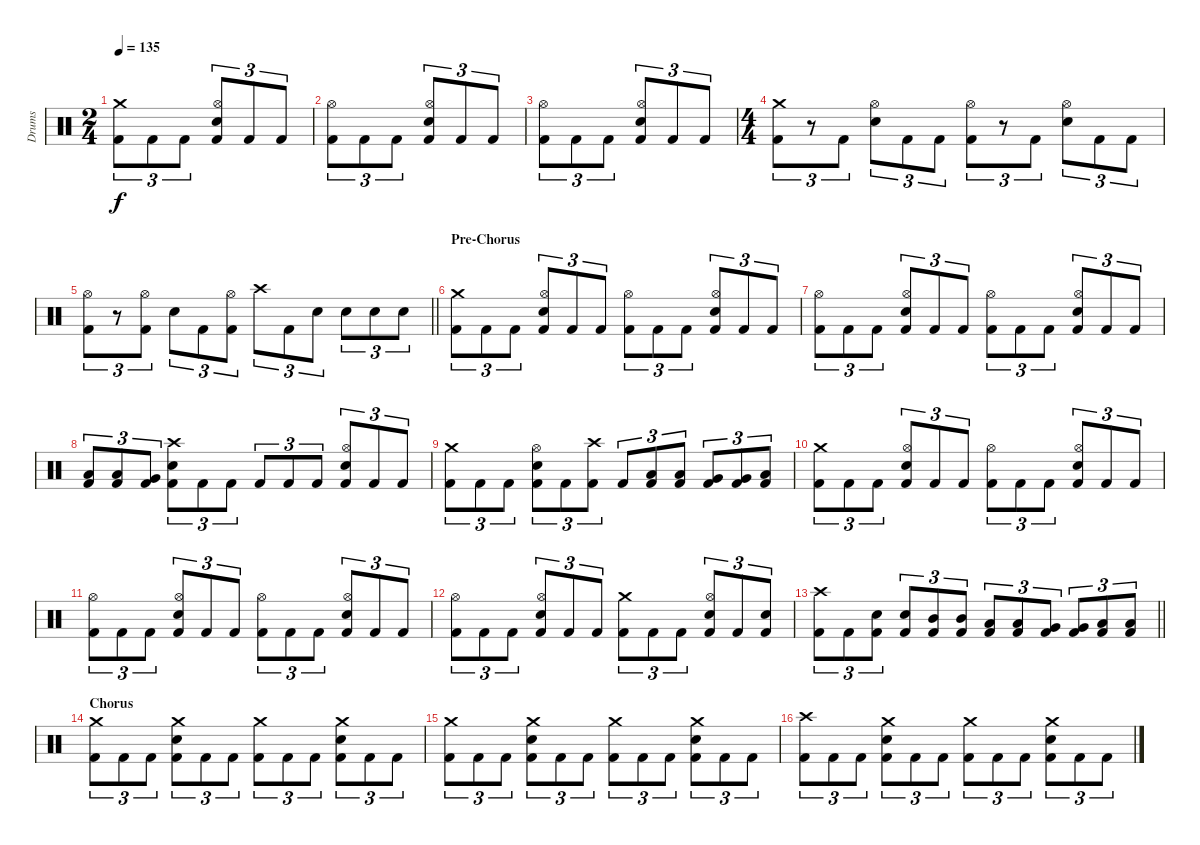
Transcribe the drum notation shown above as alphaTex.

\track ("Drums" "Drums") {instrument percussion}
\staff {score}
\articulation defaults
\ts (2 4)
\tempo 135
\clef neutral
\ks c
("Crash medium (hit)" "Kick (hit) 2").8{tu (3 2) dy f} "Kick (hit) 2".8{tu (3 2)} "Kick (hit) 2".8{tu (3 2)} ("Hi-Hat (open)" "Electric Snare (hit)" "Kick (hit) 2").8{tu (3 2)} "Kick (hit) 2".8{tu (3 2)} "Kick (hit) 2".8{tu (3 2)} |
("Hi-Hat (open)" "Kick (hit) 2").8{tu (3 2)} "Kick (hit) 2".8{tu (3 2)} "Kick (hit) 2".8{tu (3 2)} ("Hi-Hat (open)" "Electric Snare (hit)" "Kick (hit) 2").8{tu (3 2)} "Kick (hit) 2".8{tu (3 2)} "Kick (hit) 2".8{tu (3 2)} |
("Hi-Hat (open)" "Kick (hit) 2").8{tu (3 2)} "Kick (hit) 2".8{tu (3 2)} "Kick (hit) 2".8{tu (3 2)} ("Hi-Hat (open)" "Electric Snare (hit)" "Kick (hit) 2").8{tu (3 2)} "Kick (hit) 2".8{tu (3 2)} "Kick (hit) 2".8{tu (3 2)} |
\ts (4 4)
("Crash medium (hit)" "Kick (hit) 2").8{tu (3 2)} r.8{tu (3 2)} "Kick (hit) 2".8{tu (3 2)} ("Hi-Hat (open)" "Electric Snare (hit)").8{tu (3 2)} "Kick (hit) 2".8{tu (3 2)} "Kick (hit) 2".8{tu (3 2)} ("Hi-Hat (open)" "Kick (hit) 2").8{tu (3 2)} r.8{tu (3 2)} "Kick (hit) 2".8{tu (3 2)} ("Hi-Hat (open)" "Electric Snare (hit)").8{tu (3 2)} "Kick (hit) 2".8{tu (3 2)} "Kick (hit) 2".8{tu (3 2)} |
\barLineRight lightlight
("Hi-Hat (open)" "Kick (hit) 2").8{tu (3 2)} r.8{tu (3 2)} ("Hi-Hat (open)" "Kick (hit) 2").8{tu (3 2)} "Electric Snare (hit)".8{tu (3 2)} "Kick (hit) 2".8{tu (3 2)} ("Hi-Hat (open)" "Kick (hit) 2").8{tu (3 2)} "Crash high (hit)".8{tu (3 2)} "Kick (hit) 2".8{tu (3 2)} "Electric Snare (hit)".8{tu (3 2)} "Electric Snare (hit)".8{tu (3 2)} "Electric Snare (hit)".8{tu (3 2)} "Electric Snare (hit)".8{tu (3 2)} |
\section ("" "Pre-Chorus")
("Crash medium (hit)" "Kick (hit) 2").8{tu (3 2)} "Kick (hit) 2".8{tu (3 2)} "Kick (hit) 2".8{tu (3 2)} ("Hi-Hat (open)" "Electric Snare (hit)" "Kick (hit) 2").8{tu (3 2)} "Kick (hit) 2".8{tu (3 2)} "Kick (hit) 2".8{tu (3 2)} ("Hi-Hat (open)" "Kick (hit) 2").8{tu (3 2)} "Kick (hit) 2".8{tu (3 2)} "Kick (hit) 2".8{tu (3 2)} ("Hi-Hat (open)" "Electric Snare (hit)" "Kick (hit) 2").8{tu (3 2)} "Kick (hit) 2".8{tu (3 2)} "Kick (hit) 2".8{tu (3 2)} |
("Hi-Hat (open)" "Kick (hit) 2").8{tu (3 2)} "Kick (hit) 2".8{tu (3 2)} "Kick (hit) 2".8{tu (3 2)} ("Hi-Hat (open)" "Electric Snare (hit)" "Kick (hit) 2").8{tu (3 2)} "Kick (hit) 2".8{tu (3 2)} "Kick (hit) 2".8{tu (3 2)} ("Hi-Hat (open)" "Kick (hit) 2").8{tu (3 2)} "Kick (hit) 2".8{tu (3 2)} "Kick (hit) 2".8{tu (3 2)} ("Hi-Hat (open)" "Electric Snare (hit)" "Kick (hit) 2").8{tu (3 2)} "Kick (hit) 2".8{tu (3 2)} "Kick (hit) 2".8{tu (3 2)} |
("Low Tom (hit)" "Kick (hit) 2").8{tu (3 2)} ("Low Tom (hit)" "Kick (hit) 2").8{tu (3 2)} ("Very Low Tom (hit)" "Kick (hit) 2").8{tu (3 2)} ("Crash high (hit)" "Electric Snare (hit)" "Kick (hit) 2").8{tu (3 2)} "Kick (hit) 2".8{tu (3 2)} "Kick (hit) 2".8{tu (3 2)} "Kick (hit) 2".8{tu (3 2)} "Kick (hit) 2".8{tu (3 2)} "Kick (hit) 2".8{tu (3 2)} ("Hi-Hat (open)" "Electric Snare (hit)" "Kick (hit) 2").8{tu (3 2)} "Kick (hit) 2".8{tu (3 2)} "Kick (hit) 2".8{tu (3 2)} |
("Crash medium (hit)" "Kick (hit) 2").8{tu (3 2)} "Kick (hit) 2".8{tu (3 2)} "Kick (hit) 2".8{tu (3 2)} ("Hi-Hat (open)" "Electric Snare (hit)" "Kick (hit) 2").8{tu (3 2)} "Kick (hit) 2".8{tu (3 2)} ("Crash high (hit)" "Kick (hit) 2").8{tu (3 2)} "Kick (hit) 2".8{tu (3 2)} ("Low Tom (hit)" "Kick (hit) 2").8{tu (3 2)} ("Low Tom (hit)" "Kick (hit) 2").8{tu (3 2)} ("Very Low Tom (hit)" "Kick (hit) 2").8{tu (3 2)} ("Very Low Tom (hit)" "Kick (hit) 2").8{tu (3 2)} ("Low Floor Tom (hit)" "Kick (hit) 2").8{tu (3 2)} |
("Crash medium (hit)" "Kick (hit) 2").8{tu (3 2)} "Kick (hit) 2".8{tu (3 2)} "Kick (hit) 2".8{tu (3 2)} ("Hi-Hat (open)" "Electric Snare (hit)" "Kick (hit) 2").8{tu (3 2)} "Kick (hit) 2".8{tu (3 2)} "Kick (hit) 2".8{tu (3 2)} ("Hi-Hat (open)" "Kick (hit) 2").8{tu (3 2)} "Kick (hit) 2".8{tu (3 2)} "Kick (hit) 2".8{tu (3 2)} ("Hi-Hat (open)" "Electric Snare (hit)" "Kick (hit) 2").8{tu (3 2)} "Kick (hit) 2".8{tu (3 2)} "Kick (hit) 2".8{tu (3 2)} |
("Hi-Hat (open)" "Kick (hit) 2").8{tu (3 2)} "Kick (hit) 2".8{tu (3 2)} "Kick (hit) 2".8{tu (3 2)} ("Hi-Hat (open)" "Electric Snare (hit)" "Kick (hit) 2").8{tu (3 2)} "Kick (hit) 2".8{tu (3 2)} "Kick (hit) 2".8{tu (3 2)} ("Hi-Hat (open)" "Kick (hit) 2").8{tu (3 2)} "Kick (hit) 2".8{tu (3 2)} "Kick (hit) 2".8{tu (3 2)} ("Hi-Hat (open)" "Electric Snare (hit)" "Kick (hit) 2").8{tu (3 2)} "Kick (hit) 2".8{tu (3 2)} "Kick (hit) 2".8{tu (3 2)} |
("Hi-Hat (open)" "Kick (hit) 2").8{tu (3 2)} "Kick (hit) 2".8{tu (3 2)} "Kick (hit) 2".8{tu (3 2)} ("Hi-Hat (open)" "Electric Snare (hit)" "Kick (hit) 2").8{tu (3 2)} "Kick (hit) 2".8{tu (3 2)} "Kick (hit) 2".8{tu (3 2)} ("Crash medium (hit)" "Kick (hit) 2").8{tu (3 2)} "Kick (hit) 2".8{tu (3 2)} "Kick (hit) 2".8{tu (3 2)} ("Hi-Hat (open)" "Electric Snare (hit)" "Kick (hit) 2").8{tu (3 2)} "Kick (hit) 2".8{tu (3 2)} ("Electric Snare (hit)" "Kick (hit) 2").8{tu (3 2)} |
\barLineRight lightlight
("Crash high (hit)" "Kick (hit) 2").8{tu (3 2)} "Kick (hit) 2".8{tu (3 2)} ("Electric Snare (hit)" "Kick (hit) 2").8{tu (3 2)} ("Electric Snare (hit)" "Kick (hit) 2").8{tu (3 2)} ("Mid Tom (hit)" "Kick (hit) 2").8{tu (3 2)} ("Mid Tom (hit)" "Kick (hit) 2").8{tu (3 2)} ("Low Tom (hit)" "Kick (hit) 2").8{tu (3 2)} ("Low Tom (hit)" "Kick (hit) 2").8{tu (3 2)} ("Very Low Tom (hit)" "Kick (hit) 2").8{tu (3 2)} ("Very Low Tom (hit)" "Kick (hit) 2").8{tu (3 2)} ("Low Floor Tom (hit)" "Kick (hit) 2").8{tu (3 2)} ("Low Floor Tom (hit)" "Kick (hit) 2").8{tu (3 2)} |
\section ("" "Chorus")
("Crash medium (hit)" "Kick (hit) 2").8{tu (3 2)} "Kick (hit) 2".8{tu (3 2)} "Kick (hit) 2".8{tu (3 2)} ("Crash medium (hit)" "Electric Snare (hit)" "Kick (hit) 2").8{tu (3 2)} "Kick (hit) 2".8{tu (3 2)} "Kick (hit) 2".8{tu (3 2)} ("Crash medium (hit)" "Kick (hit) 2").8{tu (3 2)} "Kick (hit) 2".8{tu (3 2)} "Kick (hit) 2".8{tu (3 2)} ("Crash medium (hit)" "Electric Snare (hit)" "Kick (hit) 2").8{tu (3 2)} "Kick (hit) 2".8{tu (3 2)} "Kick (hit) 2".8{tu (3 2)} |
("Crash medium (hit)" "Kick (hit) 2").8{tu (3 2)} "Kick (hit) 2".8{tu (3 2)} "Kick (hit) 2".8{tu (3 2)} ("Crash medium (hit)" "Electric Snare (hit)" "Kick (hit) 2").8{tu (3 2)} "Kick (hit) 2".8{tu (3 2)} "Kick (hit) 2".8{tu (3 2)} ("Crash medium (hit)" "Kick (hit) 2").8{tu (3 2)} "Kick (hit) 2".8{tu (3 2)} "Kick (hit) 2".8{tu (3 2)} ("Crash medium (hit)" "Electric Snare (hit)" "Kick (hit) 2").8{tu (3 2)} "Kick (hit) 2".8{tu (3 2)} "Kick (hit) 2".8{tu (3 2)} |
("Crash high (hit)" "Kick (hit) 2").8{tu (3 2)} "Kick (hit) 2".8{tu (3 2)} "Kick (hit) 2".8{tu (3 2)} ("Crash medium (hit)" "Electric Snare (hit)" "Kick (hit) 2").8{tu (3 2)} "Kick (hit) 2".8{tu (3 2)} "Kick (hit) 2".8{tu (3 2)} ("Crash medium (hit)" "Kick (hit) 2").8{tu (3 2)} "Kick (hit) 2".8{tu (3 2)} "Kick (hit) 2".8{tu (3 2)} ("Crash medium (hit)" "Electric Snare (hit)" "Kick (hit) 2").8{tu (3 2)} "Kick (hit) 2".8{tu (3 2)} "Kick (hit) 2".8{tu (3 2)}
